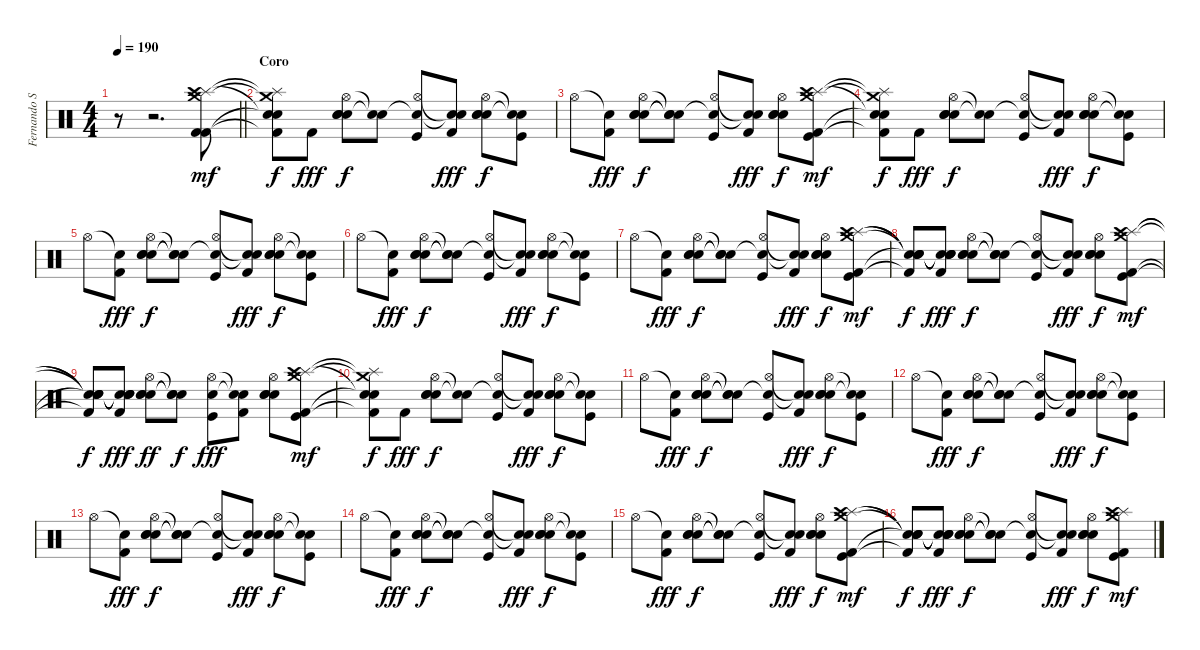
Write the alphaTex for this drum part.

\track ("Fernando Sarcella" "Fernando S") {instrument percussion}
\staff {score}
\articulation defaults
\ts (4 4)
\tempo 190
\clef neutral
\barLineRight lightlight
\ks c
r.8{dy f} r.2{d} ("Crash medium (hit)" "Splash (hit)" "Crash high (hit)" "Kick (hit) 2" "Kick (hit) 2").8{dy mf} |
\section ("" "Coro")
("Crash medium (hit)"{t} "Splash (hit)"{t} "Snare (hit)"{t} "Snare (hit)"{t} "Kick (hit) 2"{t}).8{dy f} "Kick (hit) 2".8{dy fff} ("Hi-Hat (open)" "Electric Snare (hit)" "Electric Snare (hit)" "Electric Snare (hit)").8{dy f} ("Snare (hit)"{t} "Snare (hit)"{t}).8 ("Hi-Hat (open)" "Snare (hit)"{t} "Kick (hit)").8 ("Snare (hit)"{t} "Snare (hit)"{t} "Kick (hit) 2").8{dy fff} ("Hi-Hat (open)" "Electric Snare (hit)" "Electric Snare (hit)" "Electric Snare (hit)").8{dy f} ("Snare (hit)"{t} "Snare (hit)"{t} "Kick (hit)").8 |
"Hi-Hat (open)".8 ("Snare (hit)"{t} "Kick (hit) 2").8{dy fff} ("Hi-Hat (open)" "Electric Snare (hit)" "Electric Snare (hit)" "Electric Snare (hit)").8{dy f} ("Snare (hit)"{t} "Snare (hit)"{t} "Snare (hit)"{t}).8 ("Hi-Hat (open)" "Snare (hit)"{t} "Kick (hit)").8 ("Snare (hit)"{t} "Snare (hit)"{t} "Kick (hit) 2").8{dy fff} ("Hi-Hat (open)" "Electric Snare (hit)" "Electric Snare (hit)" "Electric Snare (hit)").8{dy f} ("Crash medium (hit)" "Splash (hit)" "Crash high (hit)" "Kick (hit) 2" "Kick (hit)").8{dy mf} |
("Crash medium (hit)"{t} "Splash (hit)"{t} "Snare (hit)"{t} "Snare (hit)"{t} "Kick (hit) 2"{t}).8{dy f} "Kick (hit) 2".8{dy fff} ("Hi-Hat (open)" "Electric Snare (hit)" "Electric Snare (hit)" "Electric Snare (hit)").8{dy f} ("Snare (hit)"{t} "Snare (hit)"{t}).8 ("Hi-Hat (open)" "Snare (hit)"{t} "Kick (hit)").8 ("Snare (hit)"{t} "Snare (hit)"{t} "Kick (hit) 2").8{dy fff} ("Hi-Hat (open)" "Electric Snare (hit)" "Electric Snare (hit)" "Electric Snare (hit)").8{dy f} ("Snare (hit)"{t} "Snare (hit)"{t} "Kick (hit)").8 |
"Hi-Hat (open)".8 ("Snare (hit)"{t} "Kick (hit) 2").8{dy fff} ("Hi-Hat (open)" "Electric Snare (hit)" "Electric Snare (hit)" "Electric Snare (hit)").8{dy f} ("Snare (hit)"{t} "Snare (hit)"{t} "Snare (hit)"{t}).8 ("Hi-Hat (open)" "Snare (hit)"{t} "Kick (hit)").8 ("Snare (hit)"{t} "Snare (hit)"{t} "Kick (hit) 2").8{dy fff} ("Hi-Hat (open)" "Electric Snare (hit)" "Electric Snare (hit)" "Electric Snare (hit)").8{dy f} ("Snare (hit)"{t} "Snare (hit)"{t} "Kick (hit)").8 |
"Hi-Hat (open)".8 ("Snare (hit)"{t} "Kick (hit) 2").8{dy fff} ("Hi-Hat (open)" "Electric Snare (hit)" "Electric Snare (hit)" "Electric Snare (hit)").8{dy f} ("Snare (hit)"{t} "Snare (hit)"{t} "Snare (hit)"{t}).8 ("Hi-Hat (open)" "Snare (hit)"{t} "Kick (hit)").8 ("Snare (hit)"{t} "Snare (hit)"{t} "Kick (hit) 2").8{dy fff} ("Hi-Hat (open)" "Electric Snare (hit)" "Electric Snare (hit)" "Electric Snare (hit)").8{dy f} ("Snare (hit)"{t} "Snare (hit)"{t} "Kick (hit)").8 |
"Hi-Hat (open)".8 ("Snare (hit)"{t} "Kick (hit) 2").8{dy fff} ("Hi-Hat (open)" "Electric Snare (hit)" "Electric Snare (hit)" "Electric Snare (hit)").8{dy f} ("Snare (hit)"{t} "Snare (hit)"{t} "Snare (hit)"{t}).8 ("Hi-Hat (open)" "Snare (hit)"{t} "Kick (hit)").8 ("Snare (hit)"{t} "Snare (hit)"{t} "Kick (hit) 2").8{dy fff} ("Hi-Hat (open)" "Electric Snare (hit)" "Electric Snare (hit)" "Electric Snare (hit)").8{dy f} ("Crash medium (hit)" "Splash (hit)" "Crash high (hit)" "Kick (hit) 2" "Kick (hit)").8{dy mf} |
("Snare (hit)"{t} "Snare (hit)"{t} "Snare (hit)"{t} "Snare (hit)"{t} "Kick (hit) 2"{t}).8{dy f} ("Snare (hit)"{t} "Snare (hit)"{t} "Snare (hit)"{t} "Snare (hit)"{t} "Kick (hit) 2").8{dy fff} ("Hi-Hat (open)" "Electric Snare (hit)" "Electric Snare (hit)" "Electric Snare (hit)").8{dy f} ("Snare (hit)"{t} "Snare (hit)"{t} "Snare (hit)"{t}).8 ("Hi-Hat (open)" "Snare (hit)"{t} "Kick (hit)").8 ("Snare (hit)"{t} "Snare (hit)"{t} "Kick (hit) 2").8{dy fff} ("Hi-Hat (open)" "Electric Snare (hit)" "Electric Snare (hit)" "Electric Snare (hit)").8{dy f} ("Crash medium (hit)" "Splash (hit)" "Crash high (hit)" "Kick (hit) 2" "Kick (hit)").8{dy mf} |
("Snare (hit)"{t} "Snare (hit)"{t} "Snare (hit)"{t} "Snare (hit)"{t} "Kick (hit) 2"{t}).8{dy f} ("Snare (hit)"{t} "Snare (hit)"{t} "Snare (hit)"{t} "Snare (hit)"{t} "Kick (hit) 2").8{dy fff} ("Hi-Hat (open)" "Electric Snare (hit)" "Electric Snare (hit)" "Electric Snare (hit)").8{dy ff} ("Snare (hit)"{t} "Snare (hit)"{t} "Snare (hit)"{t}).8{dy f} ("Hi-Hat (open)" "Electric Snare (hit)" "Kick (hit)").8{dy fff} ("Snare (hit)"{t} "Snare (hit)"{t} "Kick (hit) 2").8 ("Hi-Hat (open)" "Electric Snare (hit)" "Electric Snare (hit)" "Electric Snare (hit)").8 ("Crash medium (hit)" "Splash (hit)" "Crash high (hit)" "Kick (hit) 2" "Kick (hit)").8{dy mf} |
("Crash medium (hit)"{t} "Splash (hit)"{t} "Snare (hit)"{t} "Snare (hit)"{t} "Kick (hit) 2"{t}).8{dy f} "Kick (hit) 2".8{dy fff} ("Hi-Hat (open)" "Electric Snare (hit)" "Electric Snare (hit)" "Electric Snare (hit)").8{dy f} ("Snare (hit)"{t} "Snare (hit)"{t}).8 ("Hi-Hat (open)" "Snare (hit)"{t} "Kick (hit)").8 ("Snare (hit)"{t} "Snare (hit)"{t} "Kick (hit) 2").8{dy fff} ("Hi-Hat (open)" "Electric Snare (hit)" "Electric Snare (hit)" "Electric Snare (hit)").8{dy f} ("Snare (hit)"{t} "Snare (hit)"{t} "Kick (hit)").8 |
"Hi-Hat (open)".8 ("Snare (hit)"{t} "Kick (hit) 2").8{dy fff} ("Hi-Hat (open)" "Electric Snare (hit)" "Electric Snare (hit)" "Electric Snare (hit)").8{dy f} ("Snare (hit)"{t} "Snare (hit)"{t} "Snare (hit)"{t}).8 ("Hi-Hat (open)" "Snare (hit)"{t} "Kick (hit)").8 ("Snare (hit)"{t} "Snare (hit)"{t} "Kick (hit) 2").8{dy fff} ("Hi-Hat (open)" "Electric Snare (hit)" "Electric Snare (hit)" "Electric Snare (hit)").8{dy f} ("Snare (hit)"{t} "Snare (hit)"{t} "Kick (hit)").8 |
"Hi-Hat (open)".8 ("Snare (hit)"{t} "Kick (hit) 2").8{dy fff} ("Hi-Hat (open)" "Electric Snare (hit)" "Electric Snare (hit)" "Electric Snare (hit)").8{dy f} ("Snare (hit)"{t} "Snare (hit)"{t} "Snare (hit)"{t}).8 ("Hi-Hat (open)" "Snare (hit)"{t} "Kick (hit)").8 ("Snare (hit)"{t} "Snare (hit)"{t} "Kick (hit) 2").8{dy fff} ("Hi-Hat (open)" "Electric Snare (hit)" "Electric Snare (hit)" "Electric Snare (hit)").8{dy f} ("Snare (hit)"{t} "Snare (hit)"{t} "Kick (hit)").8 |
"Hi-Hat (open)".8 ("Snare (hit)"{t} "Kick (hit) 2").8{dy fff} ("Hi-Hat (open)" "Electric Snare (hit)" "Electric Snare (hit)" "Electric Snare (hit)").8{dy f} ("Snare (hit)"{t} "Snare (hit)"{t} "Snare (hit)"{t}).8 ("Hi-Hat (open)" "Snare (hit)"{t} "Kick (hit)").8 ("Snare (hit)"{t} "Snare (hit)"{t} "Kick (hit) 2").8{dy fff} ("Hi-Hat (open)" "Electric Snare (hit)" "Electric Snare (hit)" "Electric Snare (hit)").8{dy f} ("Snare (hit)"{t} "Snare (hit)"{t} "Kick (hit)").8 |
"Hi-Hat (open)".8 ("Snare (hit)"{t} "Kick (hit) 2").8{dy fff} ("Hi-Hat (open)" "Electric Snare (hit)" "Electric Snare (hit)" "Electric Snare (hit)").8{dy f} ("Snare (hit)"{t} "Snare (hit)"{t} "Snare (hit)"{t}).8 ("Hi-Hat (open)" "Snare (hit)"{t} "Kick (hit)").8 ("Snare (hit)"{t} "Snare (hit)"{t} "Kick (hit) 2").8{dy fff} ("Hi-Hat (open)" "Electric Snare (hit)" "Electric Snare (hit)" "Electric Snare (hit)").8{dy f} ("Snare (hit)"{t} "Snare (hit)"{t} "Kick (hit)").8 |
"Hi-Hat (open)".8 ("Snare (hit)"{t} "Kick (hit) 2").8{dy fff} ("Hi-Hat (open)" "Electric Snare (hit)" "Electric Snare (hit)" "Electric Snare (hit)").8{dy f} ("Snare (hit)"{t} "Snare (hit)"{t} "Snare (hit)"{t}).8 ("Hi-Hat (open)" "Snare (hit)"{t} "Kick (hit)").8 ("Snare (hit)"{t} "Snare (hit)"{t} "Kick (hit) 2").8{dy fff} ("Hi-Hat (open)" "Electric Snare (hit)" "Electric Snare (hit)" "Electric Snare (hit)").8{dy f} ("Crash medium (hit)" "Splash (hit)" "Crash high (hit)" "Kick (hit) 2" "Kick (hit)").8{dy mf} |
("Snare (hit)"{t} "Snare (hit)"{t} "Snare (hit)"{t} "Snare (hit)"{t} "Kick (hit) 2"{t}).8{dy f} ("Snare (hit)"{t} "Snare (hit)"{t} "Snare (hit)"{t} "Snare (hit)"{t} "Kick (hit) 2").8{dy fff} ("Hi-Hat (open)" "Electric Snare (hit)" "Electric Snare (hit)" "Electric Snare (hit)").8{dy f} ("Snare (hit)"{t} "Snare (hit)"{t} "Snare (hit)"{t}).8 ("Hi-Hat (open)" "Snare (hit)"{t} "Kick (hit)").8 ("Snare (hit)"{t} "Snare (hit)"{t} "Kick (hit) 2").8{dy fff} ("Hi-Hat (open)" "Electric Snare (hit)" "Electric Snare (hit)" "Electric Snare (hit)").8{dy f} ("Crash medium (hit)" "Splash (hit)" "Crash high (hit)" "Kick (hit) 2" "Kick (hit)").8{dy mf}
